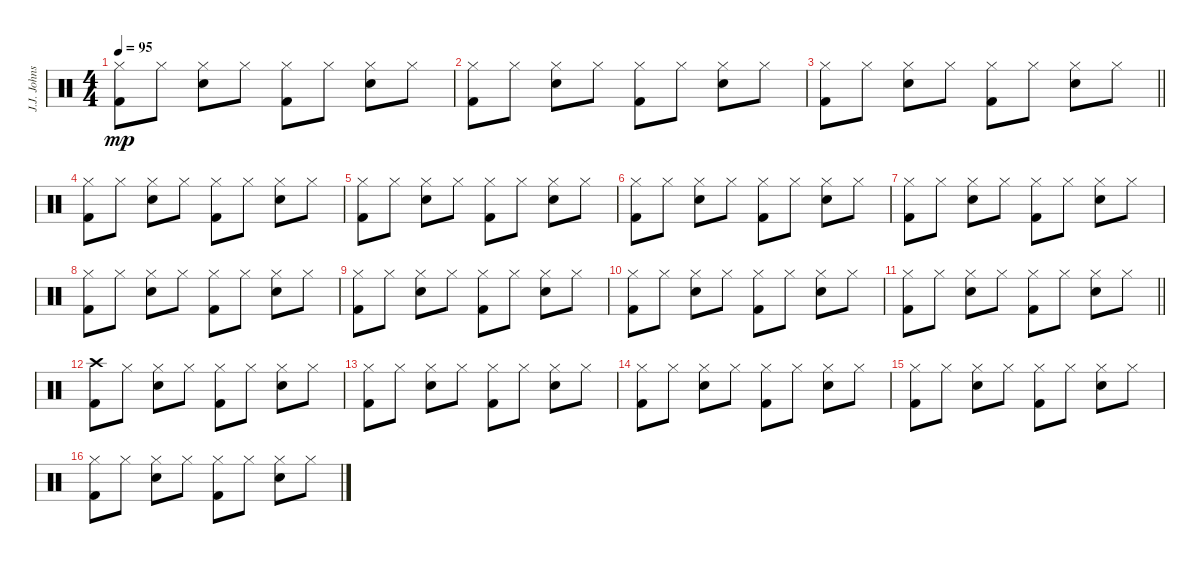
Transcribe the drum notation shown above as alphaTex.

\track ("J.J. Johnson" "J.J. Johns") {instrument percussion}
\staff {score}
\articulation defaults
\ts (4 4)
\tempo 95
\clef neutral
\ks c
("Hi-Hat (closed)" "Kick (hit) 2").8{dy mp} "Hi-Hat (closed)".8 ("Hi-Hat (closed)" "Electric Snare (hit)").8 "Hi-Hat (closed)".8 ("Hi-Hat (closed)" "Kick (hit) 2").8 "Hi-Hat (closed)".8 ("Hi-Hat (closed)" "Electric Snare (hit)").8 "Hi-Hat (closed)".8 |
("Hi-Hat (closed)" "Kick (hit) 2").8 "Hi-Hat (closed)".8 ("Hi-Hat (closed)" "Electric Snare (hit)").8 "Hi-Hat (closed)".8 ("Hi-Hat (closed)" "Kick (hit) 2").8 "Hi-Hat (closed)".8 ("Hi-Hat (closed)" "Electric Snare (hit)").8 "Hi-Hat (closed)".8 |
\barLineRight lightlight
("Hi-Hat (closed)" "Kick (hit) 2").8 "Hi-Hat (closed)".8 ("Hi-Hat (closed)" "Electric Snare (hit)").8 "Hi-Hat (closed)".8 ("Hi-Hat (closed)" "Kick (hit) 2").8 "Hi-Hat (closed)".8 ("Hi-Hat (closed)" "Electric Snare (hit)").8 "Hi-Hat (closed)".8 |
("Hi-Hat (closed)" "Kick (hit) 2").8 "Hi-Hat (closed)".8 ("Hi-Hat (closed)" "Electric Snare (hit)").8 "Hi-Hat (closed)".8 ("Hi-Hat (closed)" "Kick (hit) 2").8 "Hi-Hat (closed)".8 ("Hi-Hat (closed)" "Electric Snare (hit)").8 "Hi-Hat (closed)".8 |
("Hi-Hat (closed)" "Kick (hit) 2").8 "Hi-Hat (closed)".8 ("Hi-Hat (closed)" "Electric Snare (hit)").8 "Hi-Hat (closed)".8 ("Hi-Hat (closed)" "Kick (hit) 2").8 "Hi-Hat (closed)".8 ("Hi-Hat (closed)" "Electric Snare (hit)").8 "Hi-Hat (closed)".8 |
("Hi-Hat (closed)" "Kick (hit) 2").8 "Hi-Hat (closed)".8 ("Hi-Hat (closed)" "Electric Snare (hit)").8 "Hi-Hat (closed)".8 ("Hi-Hat (closed)" "Kick (hit) 2").8 "Hi-Hat (closed)".8 ("Hi-Hat (closed)" "Electric Snare (hit)").8 "Hi-Hat (closed)".8 |
("Hi-Hat (closed)" "Kick (hit) 2").8 "Hi-Hat (closed)".8 ("Hi-Hat (closed)" "Electric Snare (hit)").8 "Hi-Hat (closed)".8 ("Hi-Hat (closed)" "Kick (hit) 2").8 "Hi-Hat (closed)".8 ("Hi-Hat (closed)" "Electric Snare (hit)").8 "Hi-Hat (closed)".8 |
("Hi-Hat (closed)" "Kick (hit) 2").8 "Hi-Hat (closed)".8 ("Hi-Hat (closed)" "Electric Snare (hit)").8 "Hi-Hat (closed)".8 ("Hi-Hat (closed)" "Kick (hit) 2").8 "Hi-Hat (closed)".8 ("Hi-Hat (closed)" "Electric Snare (hit)").8 "Hi-Hat (closed)".8 |
("Hi-Hat (closed)" "Kick (hit) 2").8 "Hi-Hat (closed)".8 ("Hi-Hat (closed)" "Electric Snare (hit)").8 "Hi-Hat (closed)".8 ("Hi-Hat (closed)" "Kick (hit) 2").8 "Hi-Hat (closed)".8 ("Hi-Hat (closed)" "Electric Snare (hit)").8 "Hi-Hat (closed)".8 |
("Hi-Hat (closed)" "Kick (hit) 2").8 "Hi-Hat (closed)".8 ("Hi-Hat (closed)" "Electric Snare (hit)").8 "Hi-Hat (closed)".8 ("Hi-Hat (closed)" "Kick (hit) 2").8 "Hi-Hat (closed)".8 ("Hi-Hat (closed)" "Electric Snare (hit)").8 "Hi-Hat (closed)".8 |
\barLineRight lightlight
("Hi-Hat (closed)" "Kick (hit) 2").8 "Hi-Hat (closed)".8 ("Hi-Hat (closed)" "Electric Snare (hit)").8 "Hi-Hat (closed)".8 ("Hi-Hat (closed)" "Kick (hit) 2").8 "Hi-Hat (closed)".8 ("Hi-Hat (closed)" "Electric Snare (hit)").8 "Hi-Hat (closed)".8 |
("Crash high (hit)" "Kick (hit) 2").8 "Hi-Hat (closed)".8 ("Hi-Hat (closed)" "Electric Snare (hit)").8 "Hi-Hat (closed)".8 ("Hi-Hat (closed)" "Kick (hit) 2").8 "Hi-Hat (closed)".8 ("Hi-Hat (closed)" "Electric Snare (hit)").8 "Hi-Hat (closed)".8 |
("Hi-Hat (closed)" "Kick (hit) 2").8 "Hi-Hat (closed)".8 ("Hi-Hat (closed)" "Electric Snare (hit)").8 "Hi-Hat (closed)".8 ("Hi-Hat (closed)" "Kick (hit) 2").8 "Hi-Hat (closed)".8 ("Hi-Hat (closed)" "Electric Snare (hit)").8 "Hi-Hat (closed)".8 |
("Hi-Hat (closed)" "Kick (hit) 2").8 "Hi-Hat (closed)".8 ("Hi-Hat (closed)" "Electric Snare (hit)").8 "Hi-Hat (closed)".8 ("Hi-Hat (closed)" "Kick (hit) 2").8 "Hi-Hat (closed)".8 ("Hi-Hat (closed)" "Electric Snare (hit)").8 "Hi-Hat (closed)".8 |
("Hi-Hat (closed)" "Kick (hit) 2").8 "Hi-Hat (closed)".8 ("Hi-Hat (closed)" "Electric Snare (hit)").8 "Hi-Hat (closed)".8 ("Hi-Hat (closed)" "Kick (hit) 2").8 "Hi-Hat (closed)".8 ("Hi-Hat (closed)" "Electric Snare (hit)").8 "Hi-Hat (closed)".8 |
("Hi-Hat (closed)" "Kick (hit) 2").8 "Hi-Hat (closed)".8 ("Hi-Hat (closed)" "Electric Snare (hit)").8 "Hi-Hat (closed)".8 ("Hi-Hat (closed)" "Kick (hit) 2").8 "Hi-Hat (closed)".8 ("Hi-Hat (closed)" "Electric Snare (hit)").8 "Hi-Hat (closed)".8
